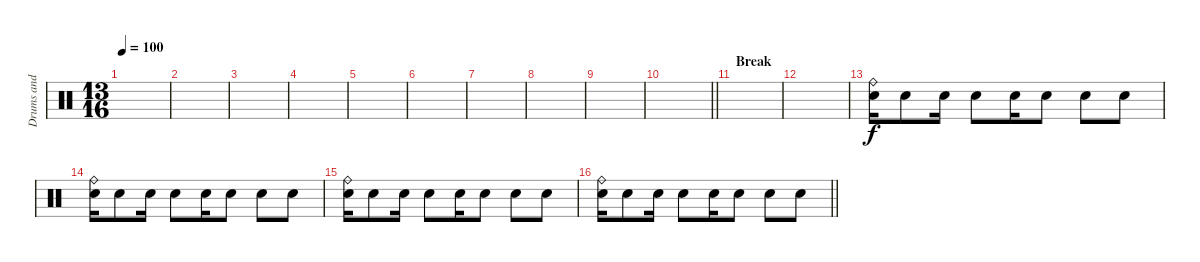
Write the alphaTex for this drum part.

\track ("Drums and FX" "Drums and ") {instrument percussion}
\staff {score}
\articulation defaults
\ts (13 16)
\tempo 100
\clef neutral
\ks c
|
|
|
|
|
|
|
|
|
\barLineRight lightlight
|
\section ("" "Break")
|
|
("Ride (bell)" "Electric Snare (hit)").16 "Electric Snare (hit)".8 "Electric Snare (hit)".16 "Electric Snare (hit)".8 "Electric Snare (hit)".16 "Electric Snare (hit)".8 "Electric Snare (hit)".8 "Electric Snare (hit)".8 |
("Ride (bell)" "Electric Snare (hit)").16 "Electric Snare (hit)".8 "Electric Snare (hit)".16 "Electric Snare (hit)".8 "Electric Snare (hit)".16 "Electric Snare (hit)".8 "Electric Snare (hit)".8 "Electric Snare (hit)".8 |
("Ride (bell)" "Electric Snare (hit)").16 "Electric Snare (hit)".8 "Electric Snare (hit)".16 "Electric Snare (hit)".8 "Electric Snare (hit)".16 "Electric Snare (hit)".8 "Electric Snare (hit)".8 "Electric Snare (hit)".8 |
\barLineRight lightlight
("Ride (bell)" "Electric Snare (hit)").16 "Electric Snare (hit)".8 "Electric Snare (hit)".16 "Electric Snare (hit)".8 "Electric Snare (hit)".16 "Electric Snare (hit)".8 "Electric Snare (hit)".8 "Electric Snare (hit)".8
